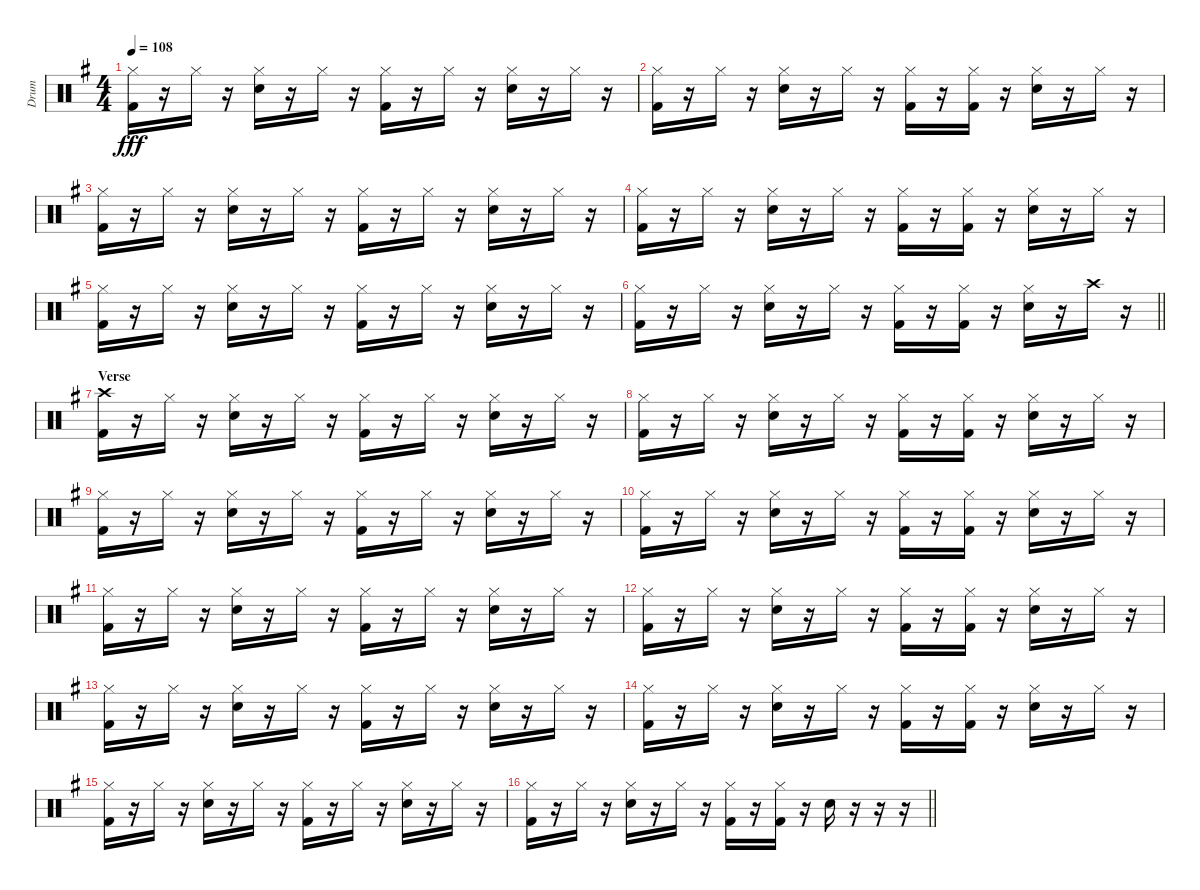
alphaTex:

\track ("Drum" "Drum") {instrument percussion}
\staff {score}
\articulation defaults
\ts (4 4)
\tempo 108
\clef neutral
\ks g
("Hi-Hat (closed)" "Kick (hit) 2").16{dy fff} r.16 "Hi-Hat (closed)".16 r.16 ("Hi-Hat (closed)" "Electric Snare (hit)").16 r.16 "Hi-Hat (closed)".16 r.16 ("Hi-Hat (closed)" "Kick (hit) 2").16 r.16 "Hi-Hat (closed)".16 r.16 ("Hi-Hat (closed)" "Electric Snare (hit)").16 r.16 "Hi-Hat (closed)".16 r.16 |
("Hi-Hat (closed)" "Kick (hit) 2").16 r.16 "Hi-Hat (closed)".16 r.16 ("Hi-Hat (closed)" "Electric Snare (hit)").16 r.16 "Hi-Hat (closed)".16 r.16 ("Hi-Hat (closed)" "Kick (hit) 2").16 r.16 ("Hi-Hat (closed)" "Kick (hit) 2").16 r.16 ("Hi-Hat (closed)" "Electric Snare (hit)").16 r.16 "Hi-Hat (closed)".16 r.16 |
("Hi-Hat (closed)" "Kick (hit) 2").16 r.16 "Hi-Hat (closed)".16 r.16 ("Hi-Hat (closed)" "Electric Snare (hit)").16 r.16 "Hi-Hat (closed)".16 r.16 ("Hi-Hat (closed)" "Kick (hit) 2").16 r.16 "Hi-Hat (closed)".16 r.16 ("Hi-Hat (closed)" "Electric Snare (hit)").16 r.16 "Hi-Hat (closed)".16 r.16 |
("Hi-Hat (closed)" "Kick (hit) 2").16 r.16 "Hi-Hat (closed)".16 r.16 ("Hi-Hat (closed)" "Electric Snare (hit)").16 r.16 "Hi-Hat (closed)".16 r.16 ("Hi-Hat (closed)" "Kick (hit) 2").16 r.16 ("Hi-Hat (closed)" "Kick (hit) 2").16 r.16 ("Hi-Hat (closed)" "Electric Snare (hit)").16 r.16 "Hi-Hat (closed)".16 r.16 |
("Hi-Hat (closed)" "Kick (hit) 2").16 r.16 "Hi-Hat (closed)".16 r.16 ("Hi-Hat (closed)" "Electric Snare (hit)").16 r.16 "Hi-Hat (closed)".16 r.16 ("Hi-Hat (closed)" "Kick (hit) 2").16 r.16 "Hi-Hat (closed)".16 r.16 ("Hi-Hat (closed)" "Electric Snare (hit)").16 r.16 "Hi-Hat (closed)".16 r.16 |
\barLineRight lightlight
("Hi-Hat (closed)" "Kick (hit) 2").16 r.16 "Hi-Hat (closed)".16 r.16 ("Hi-Hat (closed)" "Electric Snare (hit)").16 r.16 "Hi-Hat (closed)".16 r.16 ("Hi-Hat (closed)" "Kick (hit) 2").16 r.16 ("Hi-Hat (closed)" "Kick (hit) 2").16 r.16 ("Hi-Hat (closed)" "Electric Snare (hit)").16 r.16 "Crash high (hit)".16 r.16 |
\section ("" "Verse")
("Crash high (hit)" "Kick (hit) 2").16 r.16 "Hi-Hat (closed)".16 r.16 ("Hi-Hat (closed)" "Electric Snare (hit)").16 r.16 "Hi-Hat (closed)".16 r.16 ("Hi-Hat (closed)" "Kick (hit) 2").16 r.16 "Hi-Hat (closed)".16 r.16 ("Hi-Hat (closed)" "Electric Snare (hit)").16 r.16 "Hi-Hat (closed)".16 r.16 |
("Hi-Hat (closed)" "Kick (hit) 2").16 r.16 "Hi-Hat (closed)".16 r.16 ("Hi-Hat (closed)" "Electric Snare (hit)").16 r.16 "Hi-Hat (closed)".16 r.16 ("Hi-Hat (closed)" "Kick (hit) 2").16 r.16 ("Hi-Hat (closed)" "Kick (hit) 2").16 r.16 ("Hi-Hat (closed)" "Electric Snare (hit)").16 r.16 "Hi-Hat (closed)".16 r.16 |
("Hi-Hat (closed)" "Kick (hit) 2").16 r.16 "Hi-Hat (closed)".16 r.16 ("Hi-Hat (closed)" "Electric Snare (hit)").16 r.16 "Hi-Hat (closed)".16 r.16 ("Hi-Hat (closed)" "Kick (hit) 2").16 r.16 "Hi-Hat (closed)".16 r.16 ("Hi-Hat (closed)" "Electric Snare (hit)").16 r.16 "Hi-Hat (closed)".16 r.16 |
("Hi-Hat (closed)" "Kick (hit) 2").16 r.16 "Hi-Hat (closed)".16 r.16 ("Hi-Hat (closed)" "Electric Snare (hit)").16 r.16 "Hi-Hat (closed)".16 r.16 ("Hi-Hat (closed)" "Kick (hit) 2").16 r.16 ("Hi-Hat (closed)" "Kick (hit) 2").16 r.16 ("Hi-Hat (closed)" "Electric Snare (hit)").16 r.16 "Hi-Hat (closed)".16 r.16 |
("Hi-Hat (closed)" "Kick (hit) 2").16 r.16 "Hi-Hat (closed)".16 r.16 ("Hi-Hat (closed)" "Electric Snare (hit)").16 r.16 "Hi-Hat (closed)".16 r.16 ("Hi-Hat (closed)" "Kick (hit) 2").16 r.16 "Hi-Hat (closed)".16 r.16 ("Hi-Hat (closed)" "Electric Snare (hit)").16 r.16 "Hi-Hat (closed)".16 r.16 |
("Hi-Hat (closed)" "Kick (hit) 2").16 r.16 "Hi-Hat (closed)".16 r.16 ("Hi-Hat (closed)" "Electric Snare (hit)").16 r.16 "Hi-Hat (closed)".16 r.16 ("Hi-Hat (closed)" "Kick (hit) 2").16 r.16 ("Hi-Hat (closed)" "Kick (hit) 2").16 r.16 ("Hi-Hat (closed)" "Electric Snare (hit)").16 r.16 "Hi-Hat (closed)".16 r.16 |
("Hi-Hat (closed)" "Kick (hit) 2").16 r.16 "Hi-Hat (closed)".16 r.16 ("Hi-Hat (closed)" "Electric Snare (hit)").16 r.16 "Hi-Hat (closed)".16 r.16 ("Hi-Hat (closed)" "Kick (hit) 2").16 r.16 "Hi-Hat (closed)".16 r.16 ("Hi-Hat (closed)" "Electric Snare (hit)").16 r.16 "Hi-Hat (closed)".16 r.16 |
("Hi-Hat (closed)" "Kick (hit) 2").16 r.16 "Hi-Hat (closed)".16 r.16 ("Hi-Hat (closed)" "Electric Snare (hit)").16 r.16 "Hi-Hat (closed)".16 r.16 ("Hi-Hat (closed)" "Kick (hit) 2").16 r.16 ("Hi-Hat (closed)" "Kick (hit) 2").16 r.16 ("Hi-Hat (closed)" "Electric Snare (hit)").16 r.16 "Hi-Hat (closed)".16 r.16 |
("Hi-Hat (closed)" "Kick (hit) 2").16 r.16 "Hi-Hat (closed)".16 r.16 ("Hi-Hat (closed)" "Electric Snare (hit)").16 r.16 "Hi-Hat (closed)".16 r.16 ("Hi-Hat (closed)" "Kick (hit) 2").16 r.16 "Hi-Hat (closed)".16 r.16 ("Hi-Hat (closed)" "Electric Snare (hit)").16 r.16 "Hi-Hat (closed)".16 r.16 |
\barLineRight lightlight
("Hi-Hat (closed)" "Kick (hit) 2").16 r.16 "Hi-Hat (closed)".16 r.16 ("Hi-Hat (closed)" "Electric Snare (hit)").16 r.16 "Hi-Hat (closed)".16 r.16 ("Hi-Hat (closed)" "Kick (hit) 2").16 r.16 ("Hi-Hat (closed)" "Kick (hit) 2").16 r.16 "Electric Snare (hit)".16 r.16 r.16 r.16
